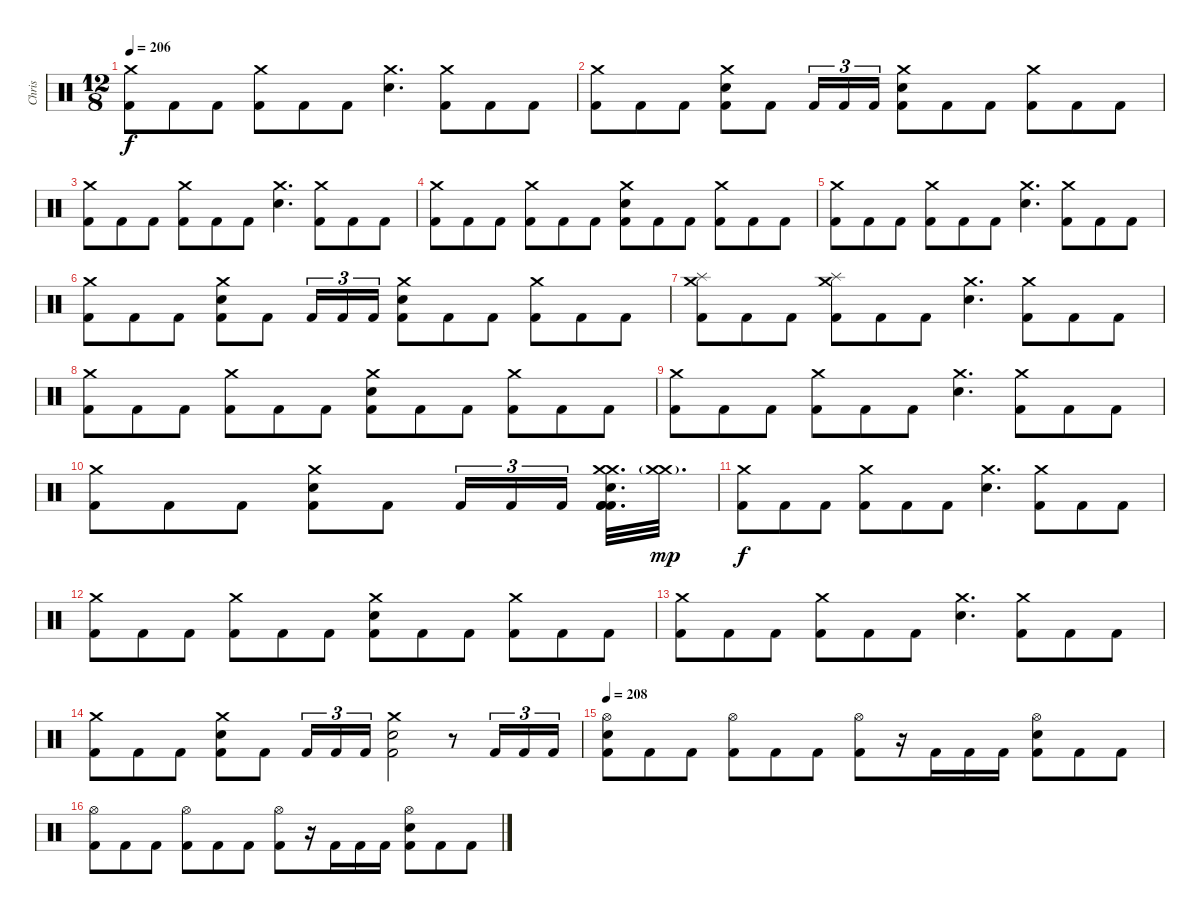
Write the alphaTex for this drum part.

\track ("Chris" "Chris") {instrument percussion}
\staff {score}
\articulation defaults
\ts (12 8)
\tempo 206
\clef neutral
\ks c
("Crash medium (hit)" "Kick (hit) 2").8{dy f} "Kick (hit) 2".8 "Kick (hit) 2".8 ("Crash medium (hit)" "Kick (hit) 2").8 "Kick (hit) 2".8 "Kick (hit) 2".8 ("Crash medium (hit)" "Electric Snare (hit)").4{d} ("Crash medium (hit)" "Kick (hit) 2").8 "Kick (hit) 2".8 "Kick (hit) 2".8 |
("Crash medium (hit)" "Kick (hit) 2").8 "Kick (hit) 2".8 "Kick (hit) 2".8 ("Crash medium (hit)" "Kick (hit) 2" "Electric Snare (hit)").8 "Kick (hit) 2".8 "Kick (hit) 2".16{tu (3 2)} "Kick (hit) 2".16{tu (3 2)} "Kick (hit) 2".16{tu (3 2)} ("Crash medium (hit)" "Kick (hit) 2" "Electric Snare (hit)").8 "Kick (hit) 2".8 "Kick (hit) 2".8 ("Crash medium (hit)" "Kick (hit) 2").8 "Kick (hit) 2".8 "Kick (hit) 2".8 |
("Crash medium (hit)" "Kick (hit) 2").8 "Kick (hit) 2".8 "Kick (hit) 2".8 ("Crash medium (hit)" "Kick (hit) 2").8 "Kick (hit) 2".8 "Kick (hit) 2".8 ("Crash medium (hit)" "Electric Snare (hit)").4{d} ("Crash medium (hit)" "Kick (hit) 2").8 "Kick (hit) 2".8 "Kick (hit) 2".8 |
("Crash medium (hit)" "Kick (hit) 2").8 "Kick (hit) 2".8 "Kick (hit) 2".8 ("Crash medium (hit)" "Kick (hit) 2").8 "Kick (hit) 2".8 "Kick (hit) 2".8 ("Crash medium (hit)" "Kick (hit) 2" "Electric Snare (hit)").8 "Kick (hit) 2".8 "Kick (hit) 2".8 ("Crash medium (hit)" "Kick (hit) 2").8 "Kick (hit) 2".8 "Kick (hit) 2".8 |
("Crash medium (hit)" "Kick (hit) 2").8 "Kick (hit) 2".8 "Kick (hit) 2".8 ("Crash medium (hit)" "Kick (hit) 2").8 "Kick (hit) 2".8 "Kick (hit) 2".8 ("Crash medium (hit)" "Electric Snare (hit)").4{d} ("Crash medium (hit)" "Kick (hit) 2").8 "Kick (hit) 2".8 "Kick (hit) 2".8 |
("Crash medium (hit)" "Kick (hit) 2").8 "Kick (hit) 2".8 "Kick (hit) 2".8 ("Crash medium (hit)" "Kick (hit) 2" "Snare (hit) 2").8 "Kick (hit) 2".8 "Kick (hit) 2".16{tu (3 2)} "Kick (hit) 2".16{tu (3 2)} "Kick (hit) 2".16{tu (3 2)} ("Crash medium (hit)" "Kick (hit) 2" "Snare (hit) 2").8 "Kick (hit) 2".8 "Kick (hit) 2".8 ("Crash medium (hit)" "Kick (hit) 2").8 "Kick (hit) 2".8 "Kick (hit) 2".8 |
("Crash medium (hit)" "Kick (hit) 2" "Splash (hit)").8 "Kick (hit) 2".8 "Kick (hit) 2".8 ("Crash medium (hit)" "Kick (hit) 2" "Splash (hit)").8 "Kick (hit) 2".8 "Kick (hit) 2".8 ("Crash medium (hit)" "Snare (hit) 2").4{d} ("Crash medium (hit)" "Kick (hit) 2").8 "Kick (hit) 2".8 "Kick (hit) 2".8 |
("Crash medium (hit)" "Kick (hit) 2").8 "Kick (hit) 2".8 "Kick (hit) 2".8 ("Crash medium (hit)" "Kick (hit) 2").8 "Kick (hit) 2".8 "Kick (hit) 2".8 ("Crash medium (hit)" "Electric Snare (hit)" "Kick (hit) 2").8 "Kick (hit) 2".8 "Kick (hit) 2".8 ("Crash medium (hit)" "Kick (hit) 2").8 "Kick (hit) 2".8 "Kick (hit) 2".8 |
("Crash medium (hit)" "Kick (hit) 2").8 "Kick (hit) 2".8 "Kick (hit) 2".8 ("Crash medium (hit)" "Kick (hit) 2").8 "Kick (hit) 2".8 "Kick (hit) 2".8 ("Crash medium (hit)" "Electric Snare (hit)").4{d} ("Crash medium (hit)" "Kick (hit) 2").8 "Kick (hit) 2".8 "Kick (hit) 2".8 |
("Crash medium (hit)" "Kick (hit) 2").8 "Kick (hit) 2".8 "Kick (hit) 2".8 ("Crash medium (hit)" "Kick (hit) 2" "Electric Snare (hit)").8 "Kick (hit) 2".8 "Kick (hit) 2".16{tu (3 2)} "Kick (hit) 2".16{tu (3 2)} "Kick (hit) 2".16{tu (3 2)} ("Crash medium (hit)" "Electric Snare (hit)" "Crash medium (hit)" "Kick (hit) 2" "Kick (hit) 2" "Kick (hit) 2").32{d} ("Crash medium (hit)"{g} "Crash medium (hit)"{g}).32{d dy mp} |
("Crash medium (hit)" "Kick (hit) 2").8{dy f} "Kick (hit) 2".8 "Kick (hit) 2".8 ("Crash medium (hit)" "Kick (hit) 2").8 "Kick (hit) 2".8 "Kick (hit) 2".8 ("Crash medium (hit)" "Electric Snare (hit)").4{d} ("Crash medium (hit)" "Kick (hit) 2").8 "Kick (hit) 2".8 "Kick (hit) 2".8 |
("Crash medium (hit)" "Kick (hit) 2").8 "Kick (hit) 2".8 "Kick (hit) 2".8 ("Crash medium (hit)" "Kick (hit) 2").8 "Kick (hit) 2".8 "Kick (hit) 2".8 ("Crash medium (hit)" "Kick (hit) 2" "Electric Snare (hit)").8 "Kick (hit) 2".8 "Kick (hit) 2".8 ("Crash medium (hit)" "Kick (hit) 2").8 "Kick (hit) 2".8 "Kick (hit) 2".8 |
("Crash medium (hit)" "Kick (hit) 2").8 "Kick (hit) 2".8 "Kick (hit) 2".8 ("Crash medium (hit)" "Kick (hit) 2").8 "Kick (hit) 2".8 "Kick (hit) 2".8 ("Crash medium (hit)" "Electric Snare (hit)").4{d} ("Crash medium (hit)" "Kick (hit) 2").8 "Kick (hit) 2".8 "Kick (hit) 2".8 |
("Crash medium (hit)" "Kick (hit) 2").8 "Kick (hit) 2".8 "Kick (hit) 2".8 ("Crash medium (hit)" "Kick (hit) 2" "Electric Snare (hit)").8 "Kick (hit) 2".8 "Kick (hit) 2".16{tu (3 2)} "Kick (hit) 2".16{tu (3 2)} "Kick (hit) 2".16{tu (3 2)} ("Crash medium (hit)" "Kick (hit) 2" "Electric Snare (hit)").2 r.8 "Kick (hit) 2".16{tu (3 2)} "Kick (hit) 2".16{tu (3 2)} "Kick (hit) 2".16{tu (3 2)} |
\tempo 208
("Kick (hit) 2" "Electric Snare (hit)" "Hi-Hat (open)").8 "Kick (hit) 2".8 "Kick (hit) 2".8 ("Kick (hit) 2" "Hi-Hat (open)").8 "Kick (hit) 2".8 "Kick (hit) 2".8 ("Kick (hit) 2" "Hi-Hat (open)").8 r.16 "Kick (hit) 2".16 "Kick (hit) 2".16 "Kick (hit) 2".16 ("Kick (hit) 2" "Hi-Hat (open)" "Electric Snare (hit)").8 "Kick (hit) 2".8 "Kick (hit) 2".8 |
("Kick (hit) 2" "Hi-Hat (open)").8 "Kick (hit) 2".8 "Kick (hit) 2".8 ("Kick (hit) 2" "Hi-Hat (open)").8 "Kick (hit) 2".8 "Kick (hit) 2".8 ("Kick (hit) 2" "Hi-Hat (open)").8 r.16 "Kick (hit) 2".16 "Kick (hit) 2".16 "Kick (hit) 2".16 ("Kick (hit) 2" "Hi-Hat (open)" "Electric Snare (hit)").8 "Kick (hit) 2".8 "Kick (hit) 2".8
